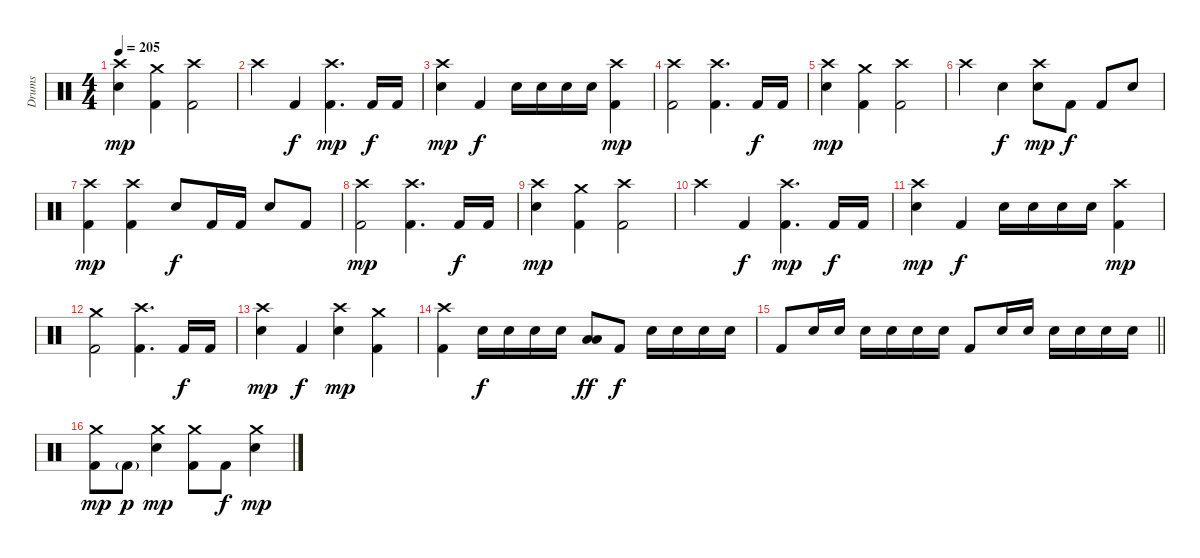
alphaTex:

\track ("Drums" "Drums") {instrument percussion}
\staff {score}
\articulation defaults
\ts (4 4)
\tempo 205
\clef neutral
\ks c
("Crash high (hit)" "Electric Snare (hit)").4{dy mp} ("Crash medium (hit)" "Kick (hit) 2").4 ("Crash high (hit)" "Kick (hit) 2").2 |
"Crash high (hit)".4 "Kick (hit) 2".4{dy f} ("Crash high (hit)" "Kick (hit) 2").4{d dy mp} "Kick (hit) 2".16{dy f} "Kick (hit) 2".16 |
("Crash high (hit)" "Electric Snare (hit)").4{dy mp} "Kick (hit) 2".4{dy f} "Electric Snare (hit)".16 "Electric Snare (hit)".16 "Electric Snare (hit)".16 "Electric Snare (hit)".16 ("Crash high (hit)" "Kick (hit) 2").4{dy mp} |
("Crash high (hit)" "Kick (hit) 2").2 ("Crash high (hit)" "Kick (hit) 2").4{d} "Kick (hit) 2".16{dy f} "Kick (hit) 2".16 |
("Crash high (hit)" "Electric Snare (hit)").4{dy mp} ("Crash medium (hit)" "Kick (hit) 2").4 ("Crash high (hit)" "Kick (hit) 2").2 |
"Crash high (hit)".4 "Electric Snare (hit)".4{dy f} ("Crash high (hit)" "Electric Snare (hit)").8{dy mp} "Kick (hit) 2".8{dy f} "Kick (hit) 2".8 "Electric Snare (hit)".8 |
("Crash high (hit)" "Kick (hit) 2").4{dy mp} ("Crash high (hit)" "Kick (hit) 2").4 "Electric Snare (hit)".8{dy f} "Kick (hit) 2".16 "Kick (hit) 2".16 "Electric Snare (hit)".8 "Kick (hit) 2".8 |
("Crash high (hit)" "Kick (hit) 2").2{dy mp} ("Crash high (hit)" "Kick (hit) 2").4{d} "Kick (hit) 2".16{dy f} "Kick (hit) 2".16 |
("Crash high (hit)" "Electric Snare (hit)").4{dy mp} ("Crash medium (hit)" "Kick (hit) 2").4 ("Crash high (hit)" "Kick (hit) 2").2 |
"Crash high (hit)".4 "Kick (hit) 2".4{dy f} ("Crash high (hit)" "Kick (hit) 2").4{d dy mp} "Kick (hit) 2".16{dy f} "Kick (hit) 2".16 |
("Crash high (hit)" "Electric Snare (hit)").4{dy mp} "Kick (hit) 2".4{dy f} "Electric Snare (hit)".16 "Electric Snare (hit)".16 "Electric Snare (hit)".16 "Electric Snare (hit)".16 ("Crash high (hit)" "Kick (hit) 2").4{dy mp} |
("Crash medium (hit)" "Kick (hit) 2").2 ("Crash high (hit)" "Kick (hit) 2").4{d} "Kick (hit) 2".16{dy f} "Kick (hit) 2".16 |
("Crash high (hit)" "Electric Snare (hit)").4{dy mp} "Kick (hit) 2".4{dy f} ("Crash high (hit)" "Electric Snare (hit)").4{dy mp} ("Crash medium (hit)" "Kick (hit) 2").4 |
("Crash high (hit)" "Kick (hit) 2").4 "Electric Snare (hit)".16{dy f} "Electric Snare (hit)".16 "Electric Snare (hit)".16 "Electric Snare (hit)".16 ("Low Tom (hit)" "Low Floor Tom (hit)").8{dy ff} "Kick (hit) 2".8{dy f} "Electric Snare (hit)".16 "Electric Snare (hit)".16 "Electric Snare (hit)".16 "Electric Snare (hit)".16 |
\barLineRight lightlight "Kick (hit) 2".8 "Electric Snare (hit)".16 "Electric Snare (hit)".16 "Electric Snare (hit)".16 "Electric Snare (hit)".16 "Electric Snare (hit)".16 "Electric Snare (hit)".16 "Kick (hit) 2".8 "Electric Snare (hit)".16 "Electric Snare (hit)".16 "Electric Snare (hit)".16 "Electric Snare (hit)".16 "Electric Snare (hit)".16 "Electric Snare (hit)".16
|
("Crash medium (hit)" "Kick (hit) 2").8{dy mp} "Kick (hit) 2"{g}.8{dy p} ("Crash medium (hit)" "Electric Snare (hit)").4{dy mp} ("Crash medium (hit)" "Kick (hit) 2").8 "Kick (hit) 2".8{dy f} ("Crash medium (hit)" "Electric Snare (hit)").4{dy mp}
